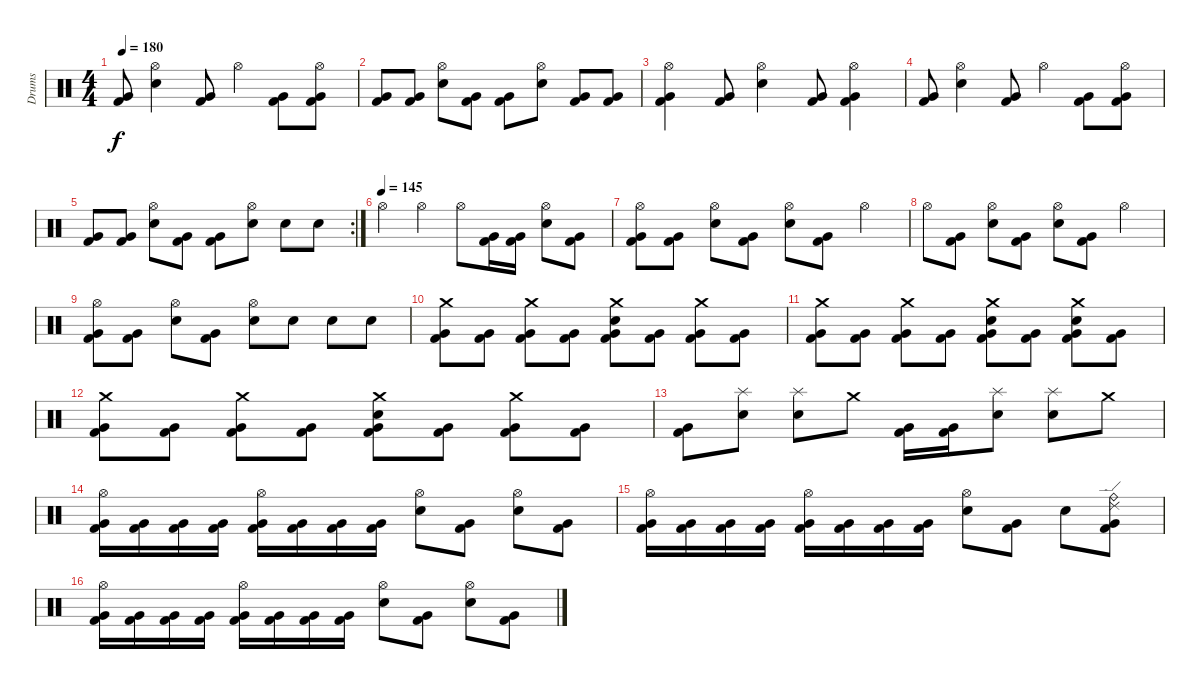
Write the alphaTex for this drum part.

\track ("Drums" "Drums") {instrument percussion}
\staff {score}
\articulation defaults
\ts (4 4)
\tempo 180
\clef neutral
\ks c
("Very Low Tom (hit)" "Kick (hit) 2").8{dy f} ("Hi-Hat (open)" "Snare (hit) 2").4 ("Very Low Tom (hit)" "Kick (hit) 2").8 "Hi-Hat (open)".4 ("Very Low Tom (hit)" "Kick (hit) 2").8 ("Hi-Hat (open)" "Very Low Tom (hit)" "Kick (hit) 2").8 |
("Very Low Tom (hit)" "Kick (hit) 2").8 ("Very Low Tom (hit)" "Kick (hit) 2").8 ("Hi-Hat (open)" "Snare (hit) 2").8 ("Very Low Tom (hit)" "Kick (hit) 2").8 ("Very Low Tom (hit)" "Kick (hit) 2").8 ("Hi-Hat (open)" "Snare (hit) 2").8 ("Very Low Tom (hit)" "Kick (hit) 2").8 ("Very Low Tom (hit)" "Kick (hit) 2").8 |
("Hi-Hat (open)" "Very Low Tom (hit)" "Kick (hit) 2").4 ("Very Low Tom (hit)" "Kick (hit) 2").8 ("Hi-Hat (open)" "Snare (hit) 2").4 ("Very Low Tom (hit)" "Kick (hit) 2").8 ("Hi-Hat (open)" "Very Low Tom (hit)" "Kick (hit) 2").4 |
("Very Low Tom (hit)" "Kick (hit) 2").8 ("Hi-Hat (open)" "Snare (hit) 2").4 ("Very Low Tom (hit)" "Kick (hit) 2").8 "Hi-Hat (open)".4 ("Very Low Tom (hit)" "Kick (hit) 2").8 ("Hi-Hat (open)" "Very Low Tom (hit)" "Kick (hit) 2").8 |
\rc 2
("Very Low Tom (hit)" "Kick (hit) 2").8 ("Very Low Tom (hit)" "Kick (hit) 2").8 ("Hi-Hat (open)" "Snare (hit) 2").8 ("Very Low Tom (hit)" "Kick (hit) 2").8 ("Very Low Tom (hit)" "Kick (hit) 2").8 ("Hi-Hat (open)" "Snare (hit) 2").8 "Snare (hit) 2".8 "Snare (hit) 2".8 |
\tempo (145)
"Hi-Hat (open)".4 "Hi-Hat (open)".4 "Hi-Hat (open)".8 ("Very Low Tom (hit)" "Kick (hit) 2").16 ("Very Low Tom (hit)" "Kick (hit) 2").16 ("Hi-Hat (open)" "Snare (hit) 2").8 ("Very Low Tom (hit)" "Kick (hit) 2").8 |
("Hi-Hat (open)" "Very Low Tom (hit)" "Kick (hit) 2").8 ("Very Low Tom (hit)" "Kick (hit) 2").8 ("Hi-Hat (open)" "Snare (hit) 2").8 ("Very Low Tom (hit)" "Kick (hit) 2").8 ("Hi-Hat (open)" "Snare (hit) 2").8 ("Very Low Tom (hit)" "Kick (hit) 2").8 "Hi-Hat (open)".4 |
"Hi-Hat (open)".8 ("Very Low Tom (hit)" "Kick (hit) 2").8 ("Hi-Hat (open)" "Snare (hit) 2").8 ("Very Low Tom (hit)" "Kick (hit) 2").8 ("Hi-Hat (open)" "Snare (hit) 2").8 ("Very Low Tom (hit)" "Kick (hit) 2").8 "Hi-Hat (open)".4 |
("Hi-Hat (open)" "Very Low Tom (hit)" "Kick (hit) 2").8 ("Very Low Tom (hit)" "Kick (hit) 2").8 ("Hi-Hat (open)" "Snare (hit) 2").8 ("Very Low Tom (hit)" "Kick (hit) 2").8 ("Hi-Hat (open)" "Snare (hit) 2").8 "Snare (hit) 2".8 "Snare (hit) 2".8 "Snare (hit) 2".8 |
("Crash medium (hit)" "Very Low Tom (hit)" "Kick (hit) 2").8 ("Very Low Tom (hit)" "Kick (hit) 2").8 ("Crash medium (hit)" "Very Low Tom (hit)" "Kick (hit) 2").8 ("Very Low Tom (hit)" "Kick (hit) 2").8 ("Crash medium (hit)" "Snare (hit) 2" "Very Low Tom (hit)" "Kick (hit) 2").8 ("Very Low Tom (hit)" "Kick (hit) 2").8 ("Crash medium (hit)" "Very Low Tom (hit)" "Kick (hit) 2").8 ("Very Low Tom (hit)" "Kick (hit) 2").8 |
("Crash medium (hit)" "Very Low Tom (hit)" "Kick (hit) 2").8 ("Very Low Tom (hit)" "Kick (hit) 2").8 ("Crash medium (hit)" "Very Low Tom (hit)" "Kick (hit) 2").8 ("Very Low Tom (hit)" "Kick (hit) 2").8 ("Crash medium (hit)" "Snare (hit) 2" "Very Low Tom (hit)" "Kick (hit) 2").8 ("Very Low Tom (hit)" "Kick (hit) 2").8 ("Crash medium (hit)" "Snare (hit) 2" "Very Low Tom (hit)" "Kick (hit) 2").8 ("Very Low Tom (hit)" "Kick (hit) 2").8 |
("Crash medium (hit)" "Very Low Tom (hit)" "Kick (hit) 2").8 ("Very Low Tom (hit)" "Kick (hit) 2").8 ("Crash medium (hit)" "Very Low Tom (hit)" "Kick (hit) 2").8 ("Very Low Tom (hit)" "Kick (hit) 2").8 ("Crash medium (hit)" "Snare (hit) 2" "Very Low Tom (hit)" "Kick (hit) 2").8 ("Very Low Tom (hit)" "Kick (hit) 2").8 ("Crash medium (hit)" "Very Low Tom (hit)" "Kick (hit) 2").8 ("Very Low Tom (hit)" "Kick (hit) 2").8 |
("Very Low Tom (hit)" "Kick (hit) 2").8 ("Splash (hit)" "Snare (hit) 2").8 ("Splash (hit)" "Snare (hit) 2").8 "Crash medium (hit)".8 ("Very Low Tom (hit)" "Kick (hit) 2").16 ("Very Low Tom (hit)" "Kick (hit) 2").16 ("Splash (hit)" "Snare (hit) 2").8 ("Splash (hit)" "Snare (hit) 2").8 "Crash medium (hit)".8 |
("Hi-Hat (open)" "Very Low Tom (hit)" "Kick (hit) 2").16 ("Very Low Tom (hit)" "Kick (hit) 2").16 ("Very Low Tom (hit)" "Kick (hit) 2").16 ("Very Low Tom (hit)" "Kick (hit) 2").16 ("Hi-Hat (open)" "Very Low Tom (hit)" "Kick (hit) 2").16 ("Very Low Tom (hit)" "Kick (hit) 2").16 ("Very Low Tom (hit)" "Kick (hit) 2").16 ("Very Low Tom (hit)" "Kick (hit) 2").16 ("Hi-Hat (open)" "Snare (hit) 2").8 ("Very Low Tom (hit)" "Kick (hit) 2").8 ("Hi-Hat (open)" "Snare (hit) 2").8 ("Very Low Tom (hit)" "Kick (hit) 2").8 |
("Hi-Hat (open)" "Very Low Tom (hit)" "Kick (hit) 2").16 ("Very Low Tom (hit)" "Kick (hit) 2").16 ("Very Low Tom (hit)" "Kick (hit) 2").16 ("Very Low Tom (hit)" "Kick (hit) 2").16 ("Hi-Hat (open)" "Very Low Tom (hit)" "Kick (hit) 2").16 ("Very Low Tom (hit)" "Kick (hit) 2").16 ("Very Low Tom (hit)" "Kick (hit) 2").16 ("Very Low Tom (hit)" "Kick (hit) 2").16 ("Hi-Hat (open)" "Snare (hit) 2").8 ("Very Low Tom (hit)" "Kick (hit) 2").8 "Snare (hit) 2".8 ("Ride (bell)" "Ride (edge) 2" "Very Low Tom (hit)" "Kick (hit) 2").8 |
("Hi-Hat (open)" "Very Low Tom (hit)" "Kick (hit) 2").16 ("Very Low Tom (hit)" "Kick (hit) 2").16 ("Very Low Tom (hit)" "Kick (hit) 2").16 ("Very Low Tom (hit)" "Kick (hit) 2").16 ("Hi-Hat (open)" "Very Low Tom (hit)" "Kick (hit) 2").16 ("Very Low Tom (hit)" "Kick (hit) 2").16 ("Very Low Tom (hit)" "Kick (hit) 2").16 ("Very Low Tom (hit)" "Kick (hit) 2").16 ("Hi-Hat (open)" "Snare (hit) 2").8 ("Very Low Tom (hit)" "Kick (hit) 2").8 ("Hi-Hat (open)" "Snare (hit) 2").8 ("Very Low Tom (hit)" "Kick (hit) 2").8
